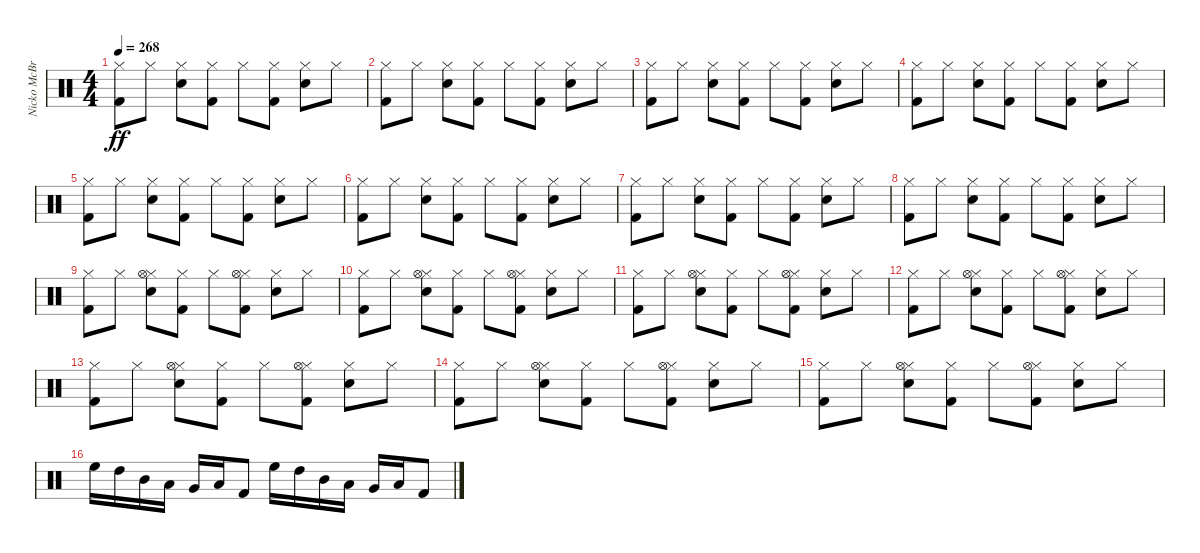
\track ("Nicko McBrain" "Nicko McBr") {instrument percussion}
\staff {score}
\articulation defaults
\ts (4 4)
\tempo 268
\clef neutral
\ks c
("Kick (hit) 2" "Hi-Hat (closed)").8{dy ff} "Hi-Hat (closed)".8 ("Snare (hit) 2" "Hi-Hat (closed)").8 ("Kick (hit) 2" "Hi-Hat (closed)").8 "Hi-Hat (closed)".8 ("Kick (hit) 2" "Hi-Hat (closed)").8 ("Snare (hit) 2" "Hi-Hat (closed)").8 "Hi-Hat (closed)".8 |
("Kick (hit) 2" "Hi-Hat (closed)").8 "Hi-Hat (closed)".8 ("Snare (hit) 2" "Hi-Hat (closed)").8 ("Kick (hit) 2" "Hi-Hat (closed)").8 "Hi-Hat (closed)".8 ("Kick (hit) 2" "Hi-Hat (closed)").8 ("Snare (hit) 2" "Hi-Hat (closed)").8 "Hi-Hat (closed)".8 |
("Kick (hit) 2" "Hi-Hat (closed)").8 "Hi-Hat (closed)".8 ("Snare (hit) 2" "Hi-Hat (closed)").8 ("Kick (hit) 2" "Hi-Hat (closed)").8 "Hi-Hat (closed)".8 ("Kick (hit) 2" "Hi-Hat (closed)").8 ("Snare (hit) 2" "Hi-Hat (closed)").8 "Hi-Hat (closed)".8 |
("Kick (hit) 2" "Hi-Hat (closed)").8 "Hi-Hat (closed)".8 ("Snare (hit) 2" "Hi-Hat (closed)").8 ("Kick (hit) 2" "Hi-Hat (closed)").8 "Hi-Hat (closed)".8 ("Kick (hit) 2" "Hi-Hat (closed)").8 ("Snare (hit) 2" "Hi-Hat (closed)").8 "Hi-Hat (closed)".8 |
("Kick (hit) 2" "Hi-Hat (closed)").8 "Hi-Hat (closed)".8 ("Snare (hit) 2" "Hi-Hat (closed)").8 ("Kick (hit) 2" "Hi-Hat (closed)").8 "Hi-Hat (closed)".8 ("Kick (hit) 2" "Hi-Hat (closed)").8 ("Snare (hit) 2" "Hi-Hat (closed)").8 "Hi-Hat (closed)".8 |
("Kick (hit) 2" "Hi-Hat (closed)").8 "Hi-Hat (closed)".8 ("Snare (hit) 2" "Hi-Hat (closed)").8 ("Kick (hit) 2" "Hi-Hat (closed)").8 "Hi-Hat (closed)".8 ("Kick (hit) 2" "Hi-Hat (closed)").8 ("Snare (hit) 2" "Hi-Hat (closed)").8 "Hi-Hat (closed)".8 |
("Kick (hit) 2" "Hi-Hat (closed)").8 "Hi-Hat (closed)".8 ("Snare (hit) 2" "Hi-Hat (closed)").8 ("Kick (hit) 2" "Hi-Hat (closed)").8 "Hi-Hat (closed)".8 ("Kick (hit) 2" "Hi-Hat (closed)").8 ("Snare (hit) 2" "Hi-Hat (closed)").8 "Hi-Hat (closed)".8 |
("Kick (hit) 2" "Hi-Hat (closed)").8 "Hi-Hat (closed)".8 ("Snare (hit) 2" "Hi-Hat (closed)").8 ("Kick (hit) 2" "Hi-Hat (closed)").8 "Hi-Hat (closed)".8 ("Kick (hit) 2" "Hi-Hat (closed)").8 ("Snare (hit) 2" "Hi-Hat (closed)").8 "Hi-Hat (closed)".8 |
("Kick (hit) 2" "Hi-Hat (closed)").8 "Hi-Hat (closed)".8 ("Snare (hit) 2" "Hi-Hat (closed)" "Hi-Hat (open)").8 ("Kick (hit) 2" "Hi-Hat (closed)").8 "Hi-Hat (closed)".8 ("Kick (hit) 2" "Hi-Hat (closed)" "Hi-Hat (open)").8 ("Snare (hit) 2" "Hi-Hat (closed)").8 "Hi-Hat (closed)".8 |
("Kick (hit) 2" "Hi-Hat (closed)").8 "Hi-Hat (closed)".8 ("Snare (hit) 2" "Hi-Hat (closed)" "Hi-Hat (open)").8 ("Kick (hit) 2" "Hi-Hat (closed)").8 "Hi-Hat (closed)".8 ("Kick (hit) 2" "Hi-Hat (closed)" "Hi-Hat (open)").8 ("Snare (hit) 2" "Hi-Hat (closed)").8 "Hi-Hat (closed)".8 |
("Kick (hit) 2" "Hi-Hat (closed)").8 "Hi-Hat (closed)".8 ("Snare (hit) 2" "Hi-Hat (closed)" "Hi-Hat (open)").8 ("Kick (hit) 2" "Hi-Hat (closed)").8 "Hi-Hat (closed)".8 ("Kick (hit) 2" "Hi-Hat (closed)" "Hi-Hat (open)").8 ("Snare (hit) 2" "Hi-Hat (closed)").8 "Hi-Hat (closed)".8 |
("Kick (hit) 2" "Hi-Hat (closed)").8 "Hi-Hat (closed)".8 ("Snare (hit) 2" "Hi-Hat (closed)" "Hi-Hat (open)").8 ("Kick (hit) 2" "Hi-Hat (closed)").8 "Hi-Hat (closed)".8 ("Kick (hit) 2" "Hi-Hat (closed)" "Hi-Hat (open)").8 ("Snare (hit) 2" "Hi-Hat (closed)").8 "Hi-Hat (closed)".8 |
("Kick (hit) 2" "Hi-Hat (closed)").8 "Hi-Hat (closed)".8 ("Snare (hit) 2" "Hi-Hat (closed)" "Hi-Hat (open)").8 ("Kick (hit) 2" "Hi-Hat (closed)").8 "Hi-Hat (closed)".8 ("Kick (hit) 2" "Hi-Hat (closed)" "Hi-Hat (open)").8 ("Snare (hit) 2" "Hi-Hat (closed)").8 "Hi-Hat (closed)".8 |
("Kick (hit) 2" "Hi-Hat (closed)").8 "Hi-Hat (closed)".8 ("Snare (hit) 2" "Hi-Hat (closed)" "Hi-Hat (open)").8 ("Kick (hit) 2" "Hi-Hat (closed)").8 "Hi-Hat (closed)".8 ("Kick (hit) 2" "Hi-Hat (closed)" "Hi-Hat (open)").8 ("Snare (hit) 2" "Hi-Hat (closed)").8 "Hi-Hat (closed)".8 |
("Kick (hit) 2" "Hi-Hat (closed)").8 "Hi-Hat (closed)".8 ("Snare (hit) 2" "Hi-Hat (closed)" "Hi-Hat (open)").8 ("Kick (hit) 2" "Hi-Hat (closed)").8 "Hi-Hat (closed)".8 ("Kick (hit) 2" "Hi-Hat (closed)" "Hi-Hat (open)").8 ("Snare (hit) 2" "Hi-Hat (closed)").8 "Hi-Hat (closed)".8 |
"High Floor Tom (hit)".16 "High Tom (hit)".16 "Mid Tom (hit)".16 "Low Tom (hit)".16 "Very Low Tom (hit)".16 "Low Floor Tom (hit)".16 "Kick (hit) 2".8 "High Floor Tom (hit)".16 "High Tom (hit)".16 "Mid Tom (hit)".16 "Low Tom (hit)".16 "Very Low Tom (hit)".16 "Low Floor Tom (hit)".16 "Kick (hit) 2".8
